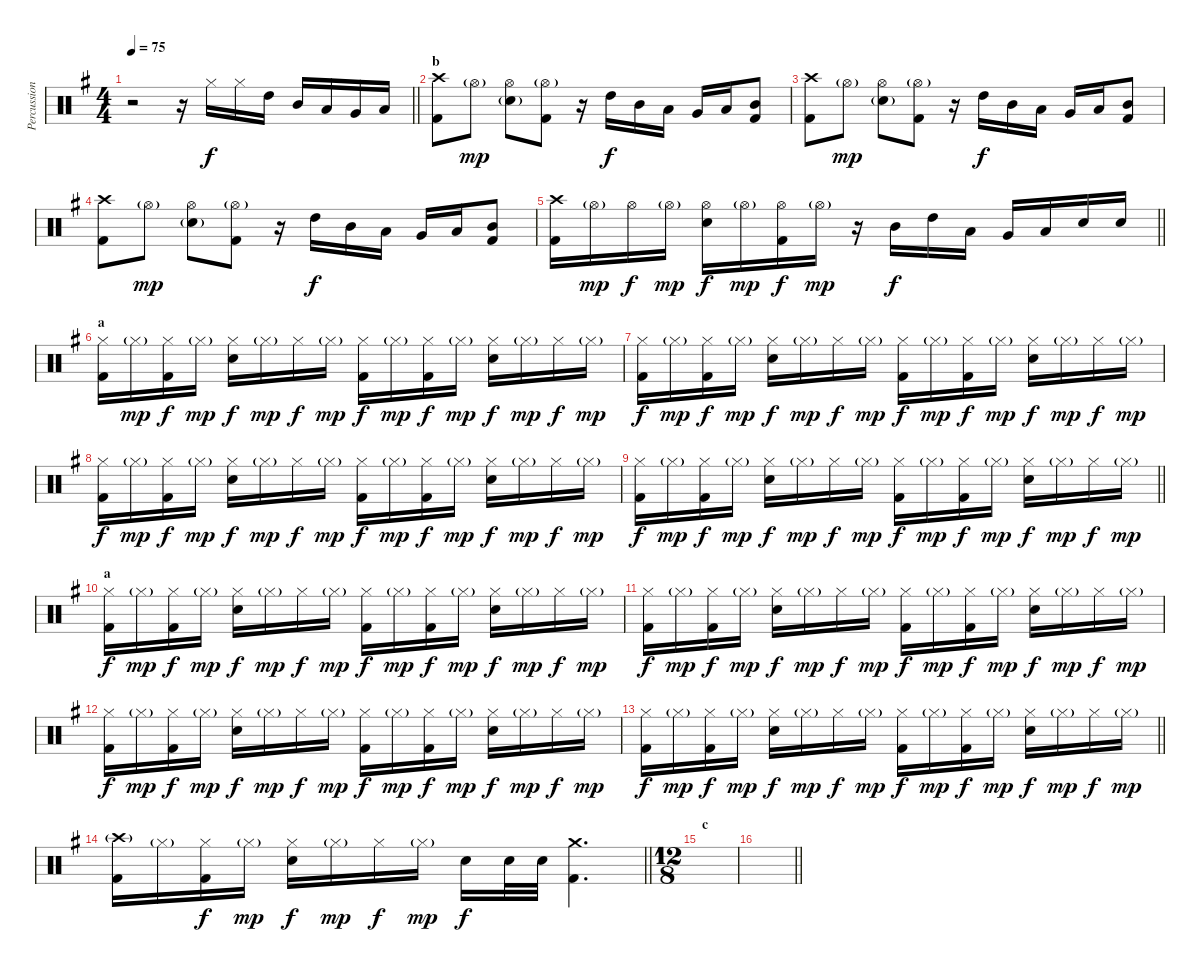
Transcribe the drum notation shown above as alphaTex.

\track ("Percussion" "Percussion") {instrument percussion}
\staff {score}
\articulation defaults
\ts (4 4)
\tempo 75
\clef neutral
\barLineRight lightlight
\ks g
r.2{dy f} r.16 "Hi-Hat (closed)".16 "Hi-Hat (closed)".16 "High Tom (hit)".16 "Mid Tom (hit)".16 "Low Tom (hit)".16 "Very Low Tom (hit)".16 "Low Floor Tom (hit)".16 |
\section ("" "b")
("Crash high (hit)" "Kick (hit) 2").8 "Hi-Hat (open)"{g}.8{dy mp} ("Hi-Hat (open)" "Electric Snare (hit)"{g}).8 ("Hi-Hat (open)"{g} "Kick (hit) 2").8 r.16 "High Tom (hit)".16{dy f} "Mid Tom (hit)".16 "Low Tom (hit)".16 "Very Low Tom (hit)".16 "Low Floor Tom (hit)".16 ("Mid Tom (hit)" "Kick (hit) 2").8 |
("Crash high (hit)" "Kick (hit) 2").8 "Hi-Hat (open)"{g}.8{dy mp} ("Hi-Hat (open)" "Electric Snare (hit)"{g}).8 ("Hi-Hat (open)"{g} "Kick (hit) 2").8 r.16 "High Tom (hit)".16{dy f} "Mid Tom (hit)".16 "Low Tom (hit)".16 "Very Low Tom (hit)".16 "Low Floor Tom (hit)".16 ("Mid Tom (hit)" "Kick (hit) 2").8 |
("Crash high (hit)" "Kick (hit) 2").8 "Hi-Hat (open)"{g}.8{dy mp} ("Hi-Hat (open)" "Electric Snare (hit)"{g}).8 ("Hi-Hat (open)"{g} "Kick (hit) 2").8 r.16 "High Tom (hit)".16{dy f} "Mid Tom (hit)".16 "Low Tom (hit)".16 "Very Low Tom (hit)".16 "Low Floor Tom (hit)".16 ("Mid Tom (hit)" "Kick (hit) 2").8 |
\barLineRight lightlight
("Crash high (hit)" "Kick (hit) 2").16 "Hi-Hat (open)"{g}.16{dy mp} "Hi-Hat (open)".16{dy f} "Hi-Hat (open)"{g}.16{dy mp} ("Hi-Hat (open)" "Electric Snare (hit)").16{dy f} "Hi-Hat (open)"{g}.16{dy mp} ("Hi-Hat (open)" "Kick (hit) 2").16{dy f} "Hi-Hat (open)"{g}.16{dy mp} r.16 "Mid Tom (hit)".16{dy f} "High Tom (hit)".16 "Low Tom (hit)".16 "Very Low Tom (hit)".16 "Low Floor Tom (hit)".16 "Electric Snare (hit)".16 "Electric Snare (hit)".16 |
\section ("" "a")
("Hi-Hat (closed)" "Kick (hit) 2").16 "Hi-Hat (closed)"{g}.16{dy mp} ("Hi-Hat (closed)" "Kick (hit) 2").16{dy f} "Hi-Hat (closed)"{g}.16{dy mp} ("Hi-Hat (closed)" "Electric Snare (hit)").16{dy f} "Hi-Hat (closed)"{g}.16{dy mp} "Hi-Hat (closed)".16{dy f} "Hi-Hat (closed)"{g}.16{dy mp} ("Hi-Hat (closed)" "Kick (hit) 2").16{dy f} "Hi-Hat (closed)"{g}.16{dy mp} ("Hi-Hat (closed)" "Kick (hit) 2").16{dy f} "Hi-Hat (closed)"{g}.16{dy mp} ("Hi-Hat (closed)" "Electric Snare (hit)").16{dy f} "Hi-Hat (closed)"{g}.16{dy mp} "Hi-Hat (closed)".16{dy f} "Hi-Hat (closed)"{g}.16{dy mp} |
("Hi-Hat (closed)" "Kick (hit) 2").16{dy f} "Hi-Hat (closed)"{g}.16{dy mp} ("Hi-Hat (closed)" "Kick (hit) 2").16{dy f} "Hi-Hat (closed)"{g}.16{dy mp} ("Hi-Hat (closed)" "Electric Snare (hit)").16{dy f} "Hi-Hat (closed)"{g}.16{dy mp} "Hi-Hat (closed)".16{dy f} "Hi-Hat (closed)"{g}.16{dy mp} ("Hi-Hat (closed)" "Kick (hit) 2").16{dy f} "Hi-Hat (closed)"{g}.16{dy mp} ("Hi-Hat (closed)" "Kick (hit) 2").16{dy f} "Hi-Hat (closed)"{g}.16{dy mp} ("Hi-Hat (closed)" "Electric Snare (hit)").16{dy f} "Hi-Hat (closed)"{g}.16{dy mp} "Hi-Hat (closed)".16{dy f} "Hi-Hat (closed)"{g}.16{dy mp} |
("Hi-Hat (closed)" "Kick (hit) 2").16{dy f} "Hi-Hat (closed)"{g}.16{dy mp} ("Hi-Hat (closed)" "Kick (hit) 2").16{dy f} "Hi-Hat (closed)"{g}.16{dy mp} ("Hi-Hat (closed)" "Electric Snare (hit)").16{dy f} "Hi-Hat (closed)"{g}.16{dy mp} "Hi-Hat (closed)".16{dy f} "Hi-Hat (closed)"{g}.16{dy mp} ("Hi-Hat (closed)" "Kick (hit) 2").16{dy f} "Hi-Hat (closed)"{g}.16{dy mp} ("Hi-Hat (closed)" "Kick (hit) 2").16{dy f} "Hi-Hat (closed)"{g}.16{dy mp} ("Hi-Hat (closed)" "Electric Snare (hit)").16{dy f} "Hi-Hat (closed)"{g}.16{dy mp} "Hi-Hat (closed)".16{dy f} "Hi-Hat (closed)"{g}.16{dy mp} |
\barLineRight lightlight
("Hi-Hat (closed)" "Kick (hit) 2").16{dy f} "Hi-Hat (closed)"{g}.16{dy mp} ("Hi-Hat (closed)" "Kick (hit) 2").16{dy f} "Hi-Hat (closed)"{g}.16{dy mp} ("Hi-Hat (closed)" "Electric Snare (hit)").16{dy f} "Hi-Hat (closed)"{g}.16{dy mp} "Hi-Hat (closed)".16{dy f} "Hi-Hat (closed)"{g}.16{dy mp} ("Hi-Hat (closed)" "Kick (hit) 2").16{dy f} "Hi-Hat (closed)"{g}.16{dy mp} ("Hi-Hat (closed)" "Kick (hit) 2").16{dy f} "Hi-Hat (closed)"{g}.16{dy mp} ("Hi-Hat (closed)" "Electric Snare (hit)").16{dy f} "Hi-Hat (closed)"{g}.16{dy mp} "Hi-Hat (closed)".16{dy f} "Hi-Hat (closed)"{g}.16{dy mp} |
\section ("" "a")
("Hi-Hat (closed)" "Kick (hit) 2").16{dy f} "Hi-Hat (closed)"{g}.16{dy mp} ("Hi-Hat (closed)" "Kick (hit) 2").16{dy f} "Hi-Hat (closed)"{g}.16{dy mp} ("Hi-Hat (closed)" "Electric Snare (hit)").16{dy f} "Hi-Hat (closed)"{g}.16{dy mp} "Hi-Hat (closed)".16{dy f} "Hi-Hat (closed)"{g}.16{dy mp} ("Hi-Hat (closed)" "Kick (hit) 2").16{dy f} "Hi-Hat (closed)"{g}.16{dy mp} ("Hi-Hat (closed)" "Kick (hit) 2").16{dy f} "Hi-Hat (closed)"{g}.16{dy mp} ("Hi-Hat (closed)" "Electric Snare (hit)").16{dy f} "Hi-Hat (closed)"{g}.16{dy mp} "Hi-Hat (closed)".16{dy f} "Hi-Hat (closed)"{g}.16{dy mp} |
("Hi-Hat (closed)" "Kick (hit) 2").16{dy f} "Hi-Hat (closed)"{g}.16{dy mp} ("Hi-Hat (closed)" "Kick (hit) 2").16{dy f} "Hi-Hat (closed)"{g}.16{dy mp} ("Hi-Hat (closed)" "Electric Snare (hit)").16{dy f} "Hi-Hat (closed)"{g}.16{dy mp} "Hi-Hat (closed)".16{dy f} "Hi-Hat (closed)"{g}.16{dy mp} ("Hi-Hat (closed)" "Kick (hit) 2").16{dy f} "Hi-Hat (closed)"{g}.16{dy mp} ("Hi-Hat (closed)" "Kick (hit) 2").16{dy f} "Hi-Hat (closed)"{g}.16{dy mp} ("Hi-Hat (closed)" "Electric Snare (hit)").16{dy f} "Hi-Hat (closed)"{g}.16{dy mp} "Hi-Hat (closed)".16{dy f} "Hi-Hat (closed)"{g}.16{dy mp} |
("Hi-Hat (closed)" "Kick (hit) 2").16{dy f} "Hi-Hat (closed)"{g}.16{dy mp} ("Hi-Hat (closed)" "Kick (hit) 2").16{dy f} "Hi-Hat (closed)"{g}.16{dy mp} ("Hi-Hat (closed)" "Electric Snare (hit)").16{dy f} "Hi-Hat (closed)"{g}.16{dy mp} "Hi-Hat (closed)".16{dy f} "Hi-Hat (closed)"{g}.16{dy mp} ("Hi-Hat (closed)" "Kick (hit) 2").16{dy f} "Hi-Hat (closed)"{g}.16{dy mp} ("Hi-Hat (closed)" "Kick (hit) 2").16{dy f} "Hi-Hat (closed)"{g}.16{dy mp} ("Hi-Hat (closed)" "Electric Snare (hit)").16{dy f} "Hi-Hat (closed)"{g}.16{dy mp} "Hi-Hat (closed)".16{dy f} "Hi-Hat (closed)"{g}.16{dy mp} |
\barLineRight lightlight
("Hi-Hat (closed)" "Kick (hit) 2").16{dy f} "Hi-Hat (closed)"{g}.16{dy mp} ("Hi-Hat (closed)" "Kick (hit) 2").16{dy f} "Hi-Hat (closed)"{g}.16{dy mp} ("Hi-Hat (closed)" "Electric Snare (hit)").16{dy f} "Hi-Hat (closed)"{g}.16{dy mp} "Hi-Hat (closed)".16{dy f} "Hi-Hat (closed)"{g}.16{dy mp} ("Hi-Hat (closed)" "Kick (hit) 2").16{dy f} "Hi-Hat (closed)"{g}.16{dy mp} ("Hi-Hat (closed)" "Kick (hit) 2").16{dy f} "Hi-Hat (closed)"{g}.16{dy mp} ("Hi-Hat (closed)" "Electric Snare (hit)").16{dy f} "Hi-Hat (closed)"{g}.16{dy mp} "Hi-Hat (closed)".16{dy f} "Hi-Hat (closed)"{g}.16{dy mp} |
\barLineRight lightlight
("Crash high (hit)"{g} "Kick (hit) 2").16 "Hi-Hat (closed)"{g}.16 ("Hi-Hat (closed)" "Kick (hit) 2").16{dy f} "Hi-Hat (closed)"{g}.16{dy mp} ("Hi-Hat (closed)" "Electric Snare (hit)").16{dy f} "Hi-Hat (closed)"{g}.16{dy mp} "Hi-Hat (closed)".16{dy f} "Hi-Hat (closed)"{g}.16{dy mp} "Electric Snare (hit)".16{dy f} "Snare (hit) 2".32 "Snare (hit) 2".32 ("Crash medium (hit)" "Kick (hit) 2").4{d} |
\ts (12 8)
\section ("" "c")
|
\barLineRight lightlight
